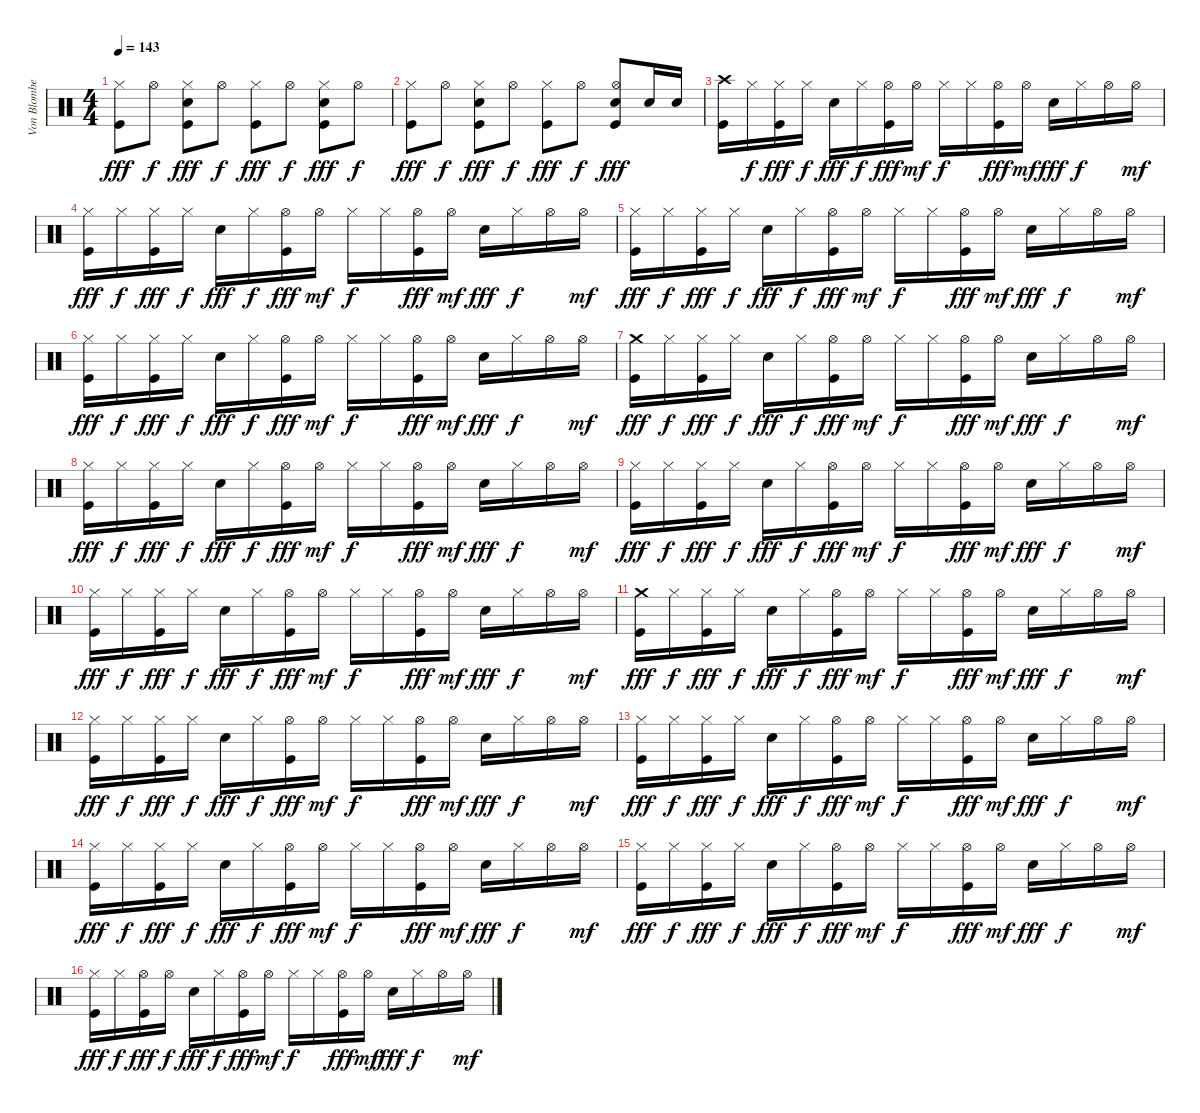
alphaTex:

\track ("Von Blomberg" "Von Blombe") {instrument percussion}
\staff {score}
\articulation defaults
\ts (4 4)
\tempo 143
\clef neutral
\ks c
("Hi-Hat (closed)" "Kick (hit)").8{dy fff} "Hi-Hat (open)".8{dy f} ("Hi-Hat (closed)" "Electric Snare (hit)" "Kick (hit)").8{dy fff} "Hi-Hat (open)".8{dy f} ("Hi-Hat (closed)" "Kick (hit)").8{dy fff} "Hi-Hat (open)".8{dy f} ("Hi-Hat (closed)" "Electric Snare (hit)" "Kick (hit)").8{dy fff} "Hi-Hat (open)".8{dy f} |
("Hi-Hat (closed)" "Kick (hit)").8{dy fff} "Hi-Hat (open)".8{dy f} ("Hi-Hat (closed)" "Electric Snare (hit)" "Kick (hit)").8{dy fff} "Hi-Hat (open)".8{dy f} ("Hi-Hat (closed)" "Kick (hit)").8{dy fff} "Hi-Hat (open)".8{dy f} ("Hi-Hat (open)" "Electric Snare (hit)" "Kick (hit)").8{dy fff} "Electric Snare (hit)".16 "Electric Snare (hit)".16 |
("Crash high (hit)" "Kick (hit)").16 "Hi-Hat (closed)".16{dy f} ("Hi-Hat (closed)" "Kick (hit)").16{dy fff} "Hi-Hat (closed)".16{dy f} "Electric Snare (hit)".16{dy fff} "Hi-Hat (closed)".16{dy f} ("Hi-Hat (open)" "Kick (hit)").16{dy fff} "Hi-Hat (open)".16{dy mf} "Hi-Hat (closed)".16{dy f} "Hi-Hat (closed)".16 ("Hi-Hat (open)" "Kick (hit)").16{dy fff} "Hi-Hat (open)".16{dy mf} "Electric Snare (hit)".16{dy fff} "Hi-Hat (closed)".16{dy f} "Hi-Hat (open)".16 "Hi-Hat (open)".16{dy mf} |
("Hi-Hat (closed)" "Kick (hit)").16{dy fff} "Hi-Hat (closed)".16{dy f} ("Hi-Hat (closed)" "Kick (hit)").16{dy fff} "Hi-Hat (closed)".16{dy f} "Electric Snare (hit)".16{dy fff} "Hi-Hat (closed)".16{dy f} ("Hi-Hat (open)" "Kick (hit)").16{dy fff} "Hi-Hat (open)".16{dy mf} "Hi-Hat (closed)".16{dy f} "Hi-Hat (closed)".16 ("Hi-Hat (open)" "Kick (hit)").16{dy fff} "Hi-Hat (open)".16{dy mf} "Electric Snare (hit)".16{dy fff} "Hi-Hat (closed)".16{dy f} "Hi-Hat (open)".16 "Hi-Hat (open)".16{dy mf} |
("Hi-Hat (closed)" "Kick (hit)").16{dy fff} "Hi-Hat (closed)".16{dy f} ("Hi-Hat (closed)" "Kick (hit)").16{dy fff} "Hi-Hat (closed)".16{dy f} "Electric Snare (hit)".16{dy fff} "Hi-Hat (closed)".16{dy f} ("Hi-Hat (open)" "Kick (hit)").16{dy fff} "Hi-Hat (open)".16{dy mf} "Hi-Hat (closed)".16{dy f} "Hi-Hat (closed)".16 ("Hi-Hat (open)" "Kick (hit)").16{dy fff} "Hi-Hat (open)".16{dy mf} "Electric Snare (hit)".16{dy fff} "Hi-Hat (closed)".16{dy f} "Hi-Hat (open)".16 "Hi-Hat (open)".16{dy mf} |
("Hi-Hat (closed)" "Kick (hit)").16{dy fff} "Hi-Hat (closed)".16{dy f} ("Hi-Hat (closed)" "Kick (hit)").16{dy fff} "Hi-Hat (closed)".16{dy f} "Electric Snare (hit)".16{dy fff} "Hi-Hat (closed)".16{dy f} ("Hi-Hat (open)" "Kick (hit)").16{dy fff} "Hi-Hat (open)".16{dy mf} "Hi-Hat (closed)".16{dy f} "Hi-Hat (closed)".16 ("Hi-Hat (open)" "Kick (hit)").16{dy fff} "Hi-Hat (open)".16{dy mf} "Electric Snare (hit)".16{dy fff} "Hi-Hat (closed)".16{dy f} "Hi-Hat (open)".16 "Hi-Hat (open)".16{dy mf} |
("Crash medium (hit)" "Kick (hit)").16{dy fff} "Hi-Hat (closed)".16{dy f} ("Hi-Hat (closed)" "Kick (hit)").16{dy fff} "Hi-Hat (closed)".16{dy f} "Electric Snare (hit)".16{dy fff} "Hi-Hat (closed)".16{dy f} ("Hi-Hat (open)" "Kick (hit)").16{dy fff} "Hi-Hat (open)".16{dy mf} "Hi-Hat (closed)".16{dy f} "Hi-Hat (closed)".16 ("Hi-Hat (open)" "Kick (hit)").16{dy fff} "Hi-Hat (open)".16{dy mf} "Electric Snare (hit)".16{dy fff} "Hi-Hat (closed)".16{dy f} "Hi-Hat (open)".16 "Hi-Hat (open)".16{dy mf} |
("Hi-Hat (closed)" "Kick (hit)").16{dy fff} "Hi-Hat (closed)".16{dy f} ("Hi-Hat (closed)" "Kick (hit)").16{dy fff} "Hi-Hat (closed)".16{dy f} "Electric Snare (hit)".16{dy fff} "Hi-Hat (closed)".16{dy f} ("Hi-Hat (open)" "Kick (hit)").16{dy fff} "Hi-Hat (open)".16{dy mf} "Hi-Hat (closed)".16{dy f} "Hi-Hat (closed)".16 ("Hi-Hat (open)" "Kick (hit)").16{dy fff} "Hi-Hat (open)".16{dy mf} "Electric Snare (hit)".16{dy fff} "Hi-Hat (closed)".16{dy f} "Hi-Hat (open)".16 "Hi-Hat (open)".16{dy mf} |
("Hi-Hat (closed)" "Kick (hit)").16{dy fff} "Hi-Hat (closed)".16{dy f} ("Hi-Hat (closed)" "Kick (hit)").16{dy fff} "Hi-Hat (closed)".16{dy f} "Electric Snare (hit)".16{dy fff} "Hi-Hat (closed)".16{dy f} ("Hi-Hat (open)" "Kick (hit)").16{dy fff} "Hi-Hat (open)".16{dy mf} "Hi-Hat (closed)".16{dy f} "Hi-Hat (closed)".16 ("Hi-Hat (open)" "Kick (hit)").16{dy fff} "Hi-Hat (open)".16{dy mf} "Electric Snare (hit)".16{dy fff} "Hi-Hat (closed)".16{dy f} "Hi-Hat (open)".16 "Hi-Hat (open)".16{dy mf} |
("Hi-Hat (closed)" "Kick (hit)").16{dy fff} "Hi-Hat (closed)".16{dy f} ("Hi-Hat (closed)" "Kick (hit)").16{dy fff} "Hi-Hat (closed)".16{dy f} "Electric Snare (hit)".16{dy fff} "Hi-Hat (closed)".16{dy f} ("Hi-Hat (open)" "Kick (hit)").16{dy fff} "Hi-Hat (open)".16{dy mf} "Hi-Hat (closed)".16{dy f} "Hi-Hat (closed)".16 ("Hi-Hat (open)" "Kick (hit)").16{dy fff} "Hi-Hat (open)".16{dy mf} "Electric Snare (hit)".16{dy fff} "Hi-Hat (closed)".16{dy f} "Hi-Hat (open)".16 "Hi-Hat (open)".16{dy mf} |
("Crash medium (hit)" "Kick (hit)").16{dy fff} "Hi-Hat (closed)".16{dy f} ("Hi-Hat (closed)" "Kick (hit)").16{dy fff} "Hi-Hat (closed)".16{dy f} "Electric Snare (hit)".16{dy fff} "Hi-Hat (closed)".16{dy f} ("Hi-Hat (open)" "Kick (hit)").16{dy fff} "Hi-Hat (open)".16{dy mf} "Hi-Hat (closed)".16{dy f} "Hi-Hat (closed)".16 ("Hi-Hat (open)" "Kick (hit)").16{dy fff} "Hi-Hat (open)".16{dy mf} "Electric Snare (hit)".16{dy fff} "Hi-Hat (closed)".16{dy f} "Hi-Hat (open)".16 "Hi-Hat (open)".16{dy mf} |
("Hi-Hat (closed)" "Kick (hit)").16{dy fff} "Hi-Hat (closed)".16{dy f} ("Hi-Hat (closed)" "Kick (hit)").16{dy fff} "Hi-Hat (closed)".16{dy f} "Electric Snare (hit)".16{dy fff} "Hi-Hat (closed)".16{dy f} ("Hi-Hat (open)" "Kick (hit)").16{dy fff} "Hi-Hat (open)".16{dy mf} "Hi-Hat (closed)".16{dy f} "Hi-Hat (closed)".16 ("Hi-Hat (open)" "Kick (hit)").16{dy fff} "Hi-Hat (open)".16{dy mf} "Electric Snare (hit)".16{dy fff} "Hi-Hat (closed)".16{dy f} "Hi-Hat (open)".16 "Hi-Hat (open)".16{dy mf} |
("Hi-Hat (closed)" "Kick (hit)").16{dy fff} "Hi-Hat (closed)".16{dy f} ("Hi-Hat (closed)" "Kick (hit)").16{dy fff} "Hi-Hat (closed)".16{dy f} "Electric Snare (hit)".16{dy fff} "Hi-Hat (closed)".16{dy f} ("Hi-Hat (open)" "Kick (hit)").16{dy fff} "Hi-Hat (open)".16{dy mf} "Hi-Hat (closed)".16{dy f} "Hi-Hat (closed)".16 ("Hi-Hat (open)" "Kick (hit)").16{dy fff} "Hi-Hat (open)".16{dy mf} "Electric Snare (hit)".16{dy fff} "Hi-Hat (closed)".16{dy f} "Hi-Hat (open)".16 "Hi-Hat (open)".16{dy mf} |
("Hi-Hat (closed)" "Kick (hit)").16{dy fff} "Hi-Hat (closed)".16{dy f} ("Hi-Hat (closed)" "Kick (hit)").16{dy fff} "Hi-Hat (closed)".16{dy f} "Electric Snare (hit)".16{dy fff} "Hi-Hat (closed)".16{dy f} ("Hi-Hat (open)" "Kick (hit)").16{dy fff} "Hi-Hat (open)".16{dy mf} "Hi-Hat (closed)".16{dy f} "Hi-Hat (closed)".16 ("Hi-Hat (open)" "Kick (hit)").16{dy fff} "Hi-Hat (open)".16{dy mf} "Electric Snare (hit)".16{dy fff} "Hi-Hat (closed)".16{dy f} "Hi-Hat (open)".16 "Hi-Hat (open)".16{dy mf} |
("Hi-Hat (closed)" "Kick (hit)").16{dy fff} "Hi-Hat (closed)".16{dy f} ("Hi-Hat (closed)" "Kick (hit)").16{dy fff} "Hi-Hat (closed)".16{dy f} "Electric Snare (hit)".16{dy fff} "Hi-Hat (closed)".16{dy f} ("Hi-Hat (open)" "Kick (hit)").16{dy fff} "Hi-Hat (open)".16{dy mf} "Hi-Hat (closed)".16{dy f} "Hi-Hat (closed)".16 ("Hi-Hat (open)" "Kick (hit)").16{dy fff} "Hi-Hat (open)".16{dy mf} "Electric Snare (hit)".16{dy fff} "Hi-Hat (closed)".16{dy f} "Hi-Hat (open)".16 "Hi-Hat (open)".16{dy mf} |
("Hi-Hat (closed)" "Kick (hit)").16{dy fff} "Hi-Hat (closed)".16{dy f} ("Hi-Hat (open)" "Kick (hit)").16{dy fff} "Hi-Hat (open)".16{dy f} "Electric Snare (hit)".16{dy fff} "Hi-Hat (closed)".16{dy f} ("Hi-Hat (open)" "Kick (hit)").16{dy fff} "Hi-Hat (open)".16{dy mf} "Hi-Hat (closed)".16{dy f} "Hi-Hat (closed)".16 ("Hi-Hat (open)" "Kick (hit)").16{dy fff} "Hi-Hat (open)".16{dy mf} "Electric Snare (hit)".16{dy fff} "Hi-Hat (closed)".16{dy f} "Hi-Hat (open)".16 "Hi-Hat (open)".16{dy mf}
